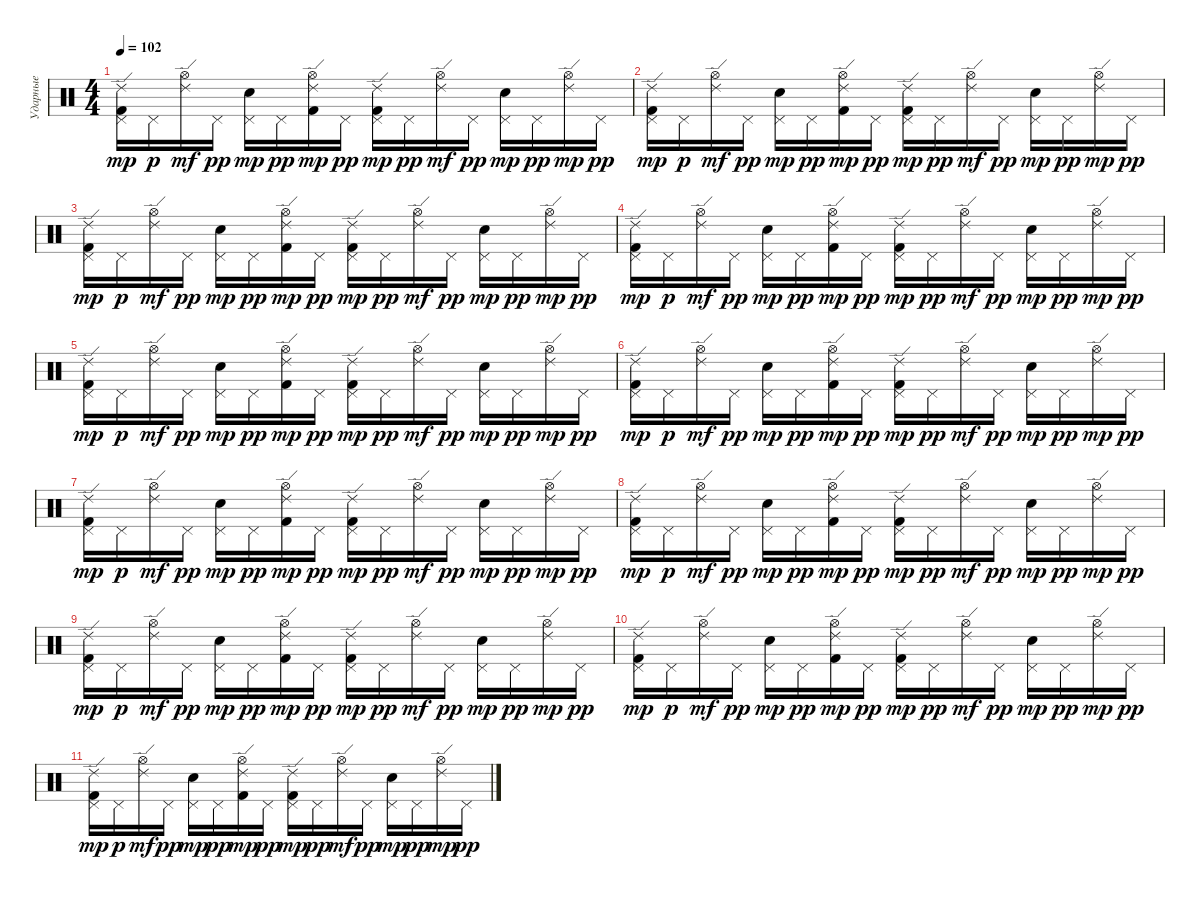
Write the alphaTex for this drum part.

\track ("Ударные" "Ударные") {instrument percussion}
\staff {score}
\articulation defaults
\ts (4 4)
\tempo 102
\clef neutral
\ks c
("Pedal Hi-Hat (hit)" "Ride (edge) 2" "Kick (hit) 2").16{dy mp} "Pedal Hi-Hat (hit)".16{dy p} ("Hi-Hat (open)" "Ride (edge) 2").16{dy mf} "Pedal Hi-Hat (hit)".16{dy pp} ("Pedal Hi-Hat (hit)" "Snare (hit) 2").16{dy mp} "Pedal Hi-Hat (hit)".16{dy pp} ("Hi-Hat (open)" "Ride (edge) 2" "Kick (hit) 2").16{dy mp} "Pedal Hi-Hat (hit)".16{dy pp} ("Pedal Hi-Hat (hit)" "Ride (edge) 2" "Kick (hit) 2").16{dy mp} "Pedal Hi-Hat (hit)".16{dy pp} ("Hi-Hat (open)" "Ride (edge) 2").16{dy mf} "Pedal Hi-Hat (hit)".16{dy pp} ("Pedal Hi-Hat (hit)" "Snare (hit) 2").16{dy mp} "Pedal Hi-Hat (hit)".16{dy pp} ("Hi-Hat (open)" "Ride (edge) 2").16{dy mp} "Pedal Hi-Hat (hit)".16{dy pp} |
("Pedal Hi-Hat (hit)" "Ride (edge) 2" "Kick (hit) 2").16{dy mp} "Pedal Hi-Hat (hit)".16{dy p} ("Hi-Hat (open)" "Ride (edge) 2").16{dy mf} "Pedal Hi-Hat (hit)".16{dy pp} ("Pedal Hi-Hat (hit)" "Snare (hit) 2").16{dy mp} "Pedal Hi-Hat (hit)".16{dy pp} ("Hi-Hat (open)" "Ride (edge) 2" "Kick (hit) 2").16{dy mp} "Pedal Hi-Hat (hit)".16{dy pp} ("Pedal Hi-Hat (hit)" "Ride (edge) 2" "Kick (hit) 2").16{dy mp} "Pedal Hi-Hat (hit)".16{dy pp} ("Hi-Hat (open)" "Ride (edge) 2").16{dy mf} "Pedal Hi-Hat (hit)".16{dy pp} ("Pedal Hi-Hat (hit)" "Snare (hit) 2").16{dy mp} "Pedal Hi-Hat (hit)".16{dy pp} ("Hi-Hat (open)" "Ride (edge) 2").16{dy mp} "Pedal Hi-Hat (hit)".16{dy pp} |
("Pedal Hi-Hat (hit)" "Ride (edge) 2" "Kick (hit) 2").16{dy mp} "Pedal Hi-Hat (hit)".16{dy p} ("Hi-Hat (open)" "Ride (edge) 2").16{dy mf} "Pedal Hi-Hat (hit)".16{dy pp} ("Pedal Hi-Hat (hit)" "Snare (hit) 2").16{dy mp} "Pedal Hi-Hat (hit)".16{dy pp} ("Hi-Hat (open)" "Ride (edge) 2" "Kick (hit) 2").16{dy mp} "Pedal Hi-Hat (hit)".16{dy pp} ("Pedal Hi-Hat (hit)" "Ride (edge) 2" "Kick (hit) 2").16{dy mp} "Pedal Hi-Hat (hit)".16{dy pp} ("Hi-Hat (open)" "Ride (edge) 2").16{dy mf} "Pedal Hi-Hat (hit)".16{dy pp} ("Pedal Hi-Hat (hit)" "Snare (hit) 2").16{dy mp} "Pedal Hi-Hat (hit)".16{dy pp} ("Hi-Hat (open)" "Ride (edge) 2").16{dy mp} "Pedal Hi-Hat (hit)".16{dy pp} |
("Pedal Hi-Hat (hit)" "Ride (edge) 2" "Kick (hit) 2").16{dy mp} "Pedal Hi-Hat (hit)".16{dy p} ("Hi-Hat (open)" "Ride (edge) 2").16{dy mf} "Pedal Hi-Hat (hit)".16{dy pp} ("Pedal Hi-Hat (hit)" "Snare (hit) 2").16{dy mp} "Pedal Hi-Hat (hit)".16{dy pp} ("Hi-Hat (open)" "Ride (edge) 2" "Kick (hit) 2").16{dy mp} "Pedal Hi-Hat (hit)".16{dy pp} ("Pedal Hi-Hat (hit)" "Ride (edge) 2" "Kick (hit) 2").16{dy mp} "Pedal Hi-Hat (hit)".16{dy pp} ("Hi-Hat (open)" "Ride (edge) 2").16{dy mf} "Pedal Hi-Hat (hit)".16{dy pp} ("Pedal Hi-Hat (hit)" "Snare (hit) 2").16{dy mp} "Pedal Hi-Hat (hit)".16{dy pp} ("Hi-Hat (open)" "Ride (edge) 2").16{dy mp} "Pedal Hi-Hat (hit)".16{dy pp} |
("Pedal Hi-Hat (hit)" "Ride (edge) 2" "Kick (hit) 2").16{dy mp} "Pedal Hi-Hat (hit)".16{dy p} ("Hi-Hat (open)" "Ride (edge) 2").16{dy mf} "Pedal Hi-Hat (hit)".16{dy pp} ("Pedal Hi-Hat (hit)" "Snare (hit) 2").16{dy mp} "Pedal Hi-Hat (hit)".16{dy pp} ("Hi-Hat (open)" "Ride (edge) 2" "Kick (hit) 2").16{dy mp} "Pedal Hi-Hat (hit)".16{dy pp} ("Pedal Hi-Hat (hit)" "Ride (edge) 2" "Kick (hit) 2").16{dy mp} "Pedal Hi-Hat (hit)".16{dy pp} ("Hi-Hat (open)" "Ride (edge) 2").16{dy mf} "Pedal Hi-Hat (hit)".16{dy pp} ("Pedal Hi-Hat (hit)" "Snare (hit) 2").16{dy mp} "Pedal Hi-Hat (hit)".16{dy pp} ("Hi-Hat (open)" "Ride (edge) 2").16{dy mp} "Pedal Hi-Hat (hit)".16{dy pp} |
("Pedal Hi-Hat (hit)" "Ride (edge) 2" "Kick (hit) 2").16{dy mp} "Pedal Hi-Hat (hit)".16{dy p} ("Hi-Hat (open)" "Ride (edge) 2").16{dy mf} "Pedal Hi-Hat (hit)".16{dy pp} ("Pedal Hi-Hat (hit)" "Snare (hit) 2").16{dy mp} "Pedal Hi-Hat (hit)".16{dy pp} ("Hi-Hat (open)" "Ride (edge) 2" "Kick (hit) 2").16{dy mp} "Pedal Hi-Hat (hit)".16{dy pp} ("Pedal Hi-Hat (hit)" "Ride (edge) 2" "Kick (hit) 2").16{dy mp} "Pedal Hi-Hat (hit)".16{dy pp} ("Hi-Hat (open)" "Ride (edge) 2").16{dy mf} "Pedal Hi-Hat (hit)".16{dy pp} ("Pedal Hi-Hat (hit)" "Snare (hit) 2").16{dy mp} "Pedal Hi-Hat (hit)".16{dy pp} ("Hi-Hat (open)" "Ride (edge) 2").16{dy mp} "Pedal Hi-Hat (hit)".16{dy pp} |
("Pedal Hi-Hat (hit)" "Ride (edge) 2" "Kick (hit) 2").16{dy mp} "Pedal Hi-Hat (hit)".16{dy p} ("Hi-Hat (open)" "Ride (edge) 2").16{dy mf} "Pedal Hi-Hat (hit)".16{dy pp} ("Pedal Hi-Hat (hit)" "Snare (hit) 2").16{dy mp} "Pedal Hi-Hat (hit)".16{dy pp} ("Hi-Hat (open)" "Ride (edge) 2" "Kick (hit) 2").16{dy mp} "Pedal Hi-Hat (hit)".16{dy pp} ("Pedal Hi-Hat (hit)" "Ride (edge) 2" "Kick (hit) 2").16{dy mp} "Pedal Hi-Hat (hit)".16{dy pp} ("Hi-Hat (open)" "Ride (edge) 2").16{dy mf} "Pedal Hi-Hat (hit)".16{dy pp} ("Pedal Hi-Hat (hit)" "Snare (hit) 2").16{dy mp} "Pedal Hi-Hat (hit)".16{dy pp} ("Hi-Hat (open)" "Ride (edge) 2").16{dy mp} "Pedal Hi-Hat (hit)".16{dy pp} |
("Pedal Hi-Hat (hit)" "Ride (edge) 2" "Kick (hit) 2").16{dy mp} "Pedal Hi-Hat (hit)".16{dy p} ("Hi-Hat (open)" "Ride (edge) 2").16{dy mf} "Pedal Hi-Hat (hit)".16{dy pp} ("Pedal Hi-Hat (hit)" "Snare (hit) 2").16{dy mp} "Pedal Hi-Hat (hit)".16{dy pp} ("Hi-Hat (open)" "Ride (edge) 2" "Kick (hit) 2").16{dy mp} "Pedal Hi-Hat (hit)".16{dy pp} ("Pedal Hi-Hat (hit)" "Ride (edge) 2" "Kick (hit) 2").16{dy mp} "Pedal Hi-Hat (hit)".16{dy pp} ("Hi-Hat (open)" "Ride (edge) 2").16{dy mf} "Pedal Hi-Hat (hit)".16{dy pp} ("Pedal Hi-Hat (hit)" "Snare (hit) 2").16{dy mp} "Pedal Hi-Hat (hit)".16{dy pp} ("Hi-Hat (open)" "Ride (edge) 2").16{dy mp} "Pedal Hi-Hat (hit)".16{dy pp} |
("Pedal Hi-Hat (hit)" "Ride (edge) 2" "Kick (hit) 2").16{dy mp} "Pedal Hi-Hat (hit)".16{dy p} ("Hi-Hat (open)" "Ride (edge) 2").16{dy mf} "Pedal Hi-Hat (hit)".16{dy pp} ("Pedal Hi-Hat (hit)" "Snare (hit) 2").16{dy mp} "Pedal Hi-Hat (hit)".16{dy pp} ("Hi-Hat (open)" "Ride (edge) 2" "Kick (hit) 2").16{dy mp} "Pedal Hi-Hat (hit)".16{dy pp} ("Pedal Hi-Hat (hit)" "Ride (edge) 2" "Kick (hit) 2").16{dy mp} "Pedal Hi-Hat (hit)".16{dy pp} ("Hi-Hat (open)" "Ride (edge) 2").16{dy mf} "Pedal Hi-Hat (hit)".16{dy pp} ("Pedal Hi-Hat (hit)" "Snare (hit) 2").16{dy mp} "Pedal Hi-Hat (hit)".16{dy pp} ("Hi-Hat (open)" "Ride (edge) 2").16{dy mp} "Pedal Hi-Hat (hit)".16{dy pp} |
("Pedal Hi-Hat (hit)" "Ride (edge) 2" "Kick (hit) 2").16{dy mp} "Pedal Hi-Hat (hit)".16{dy p} ("Hi-Hat (open)" "Ride (edge) 2").16{dy mf} "Pedal Hi-Hat (hit)".16{dy pp} ("Pedal Hi-Hat (hit)" "Snare (hit) 2").16{dy mp} "Pedal Hi-Hat (hit)".16{dy pp} ("Hi-Hat (open)" "Ride (edge) 2" "Kick (hit) 2").16{dy mp} "Pedal Hi-Hat (hit)".16{dy pp} ("Pedal Hi-Hat (hit)" "Ride (edge) 2" "Kick (hit) 2").16{dy mp} "Pedal Hi-Hat (hit)".16{dy pp} ("Hi-Hat (open)" "Ride (edge) 2").16{dy mf} "Pedal Hi-Hat (hit)".16{dy pp} ("Pedal Hi-Hat (hit)" "Snare (hit) 2").16{dy mp} "Pedal Hi-Hat (hit)".16{dy pp} ("Hi-Hat (open)" "Ride (edge) 2").16{dy mp} "Pedal Hi-Hat (hit)".16{dy pp} |
("Pedal Hi-Hat (hit)" "Ride (edge) 2" "Kick (hit) 2").16{dy mp} "Pedal Hi-Hat (hit)".16{dy p} ("Hi-Hat (open)" "Ride (edge) 2").16{dy mf} "Pedal Hi-Hat (hit)".16{dy pp} ("Pedal Hi-Hat (hit)" "Snare (hit) 2").16{dy mp} "Pedal Hi-Hat (hit)".16{dy pp} ("Hi-Hat (open)" "Ride (edge) 2" "Kick (hit) 2").16{dy mp} "Pedal Hi-Hat (hit)".16{dy pp} ("Pedal Hi-Hat (hit)" "Ride (edge) 2" "Kick (hit) 2").16{dy mp} "Pedal Hi-Hat (hit)".16{dy pp} ("Hi-Hat (open)" "Ride (edge) 2").16{dy mf} "Pedal Hi-Hat (hit)".16{dy pp} ("Pedal Hi-Hat (hit)" "Snare (hit) 2").16{dy mp} "Pedal Hi-Hat (hit)".16{dy pp} ("Hi-Hat (open)" "Ride (edge) 2").16{dy mp} "Pedal Hi-Hat (hit)".16{dy pp}
